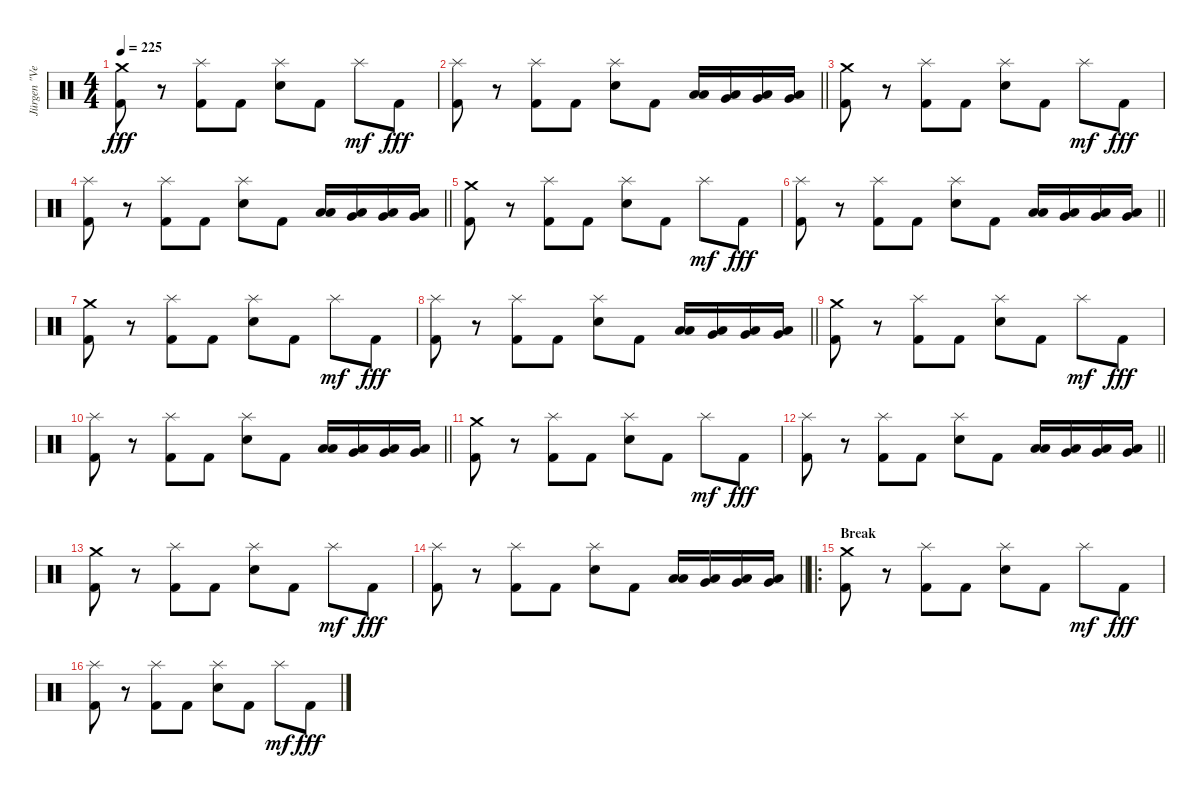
\track ("Jürgen \"Ventor\" Reil" "Jürgen \"Ve") {instrument percussion}
\staff {score}
\articulation defaults
\ts (4 4)
\tempo 225
\clef neutral
\ks c
("Crash medium (hit)" "Kick (hit) 2").8{dy fff} r.8 ("Splash (hit)" "Kick (hit) 2").8 "Kick (hit) 2".8 ("Splash (hit)" "Electric Snare (hit)").8 "Kick (hit) 2".8 "Splash (hit)".8{dy mf} "Kick (hit) 2".8{dy fff} |
\barLineRight lightlight
("Splash (hit)" "Kick (hit) 2").8 r.8 ("Splash (hit)" "Kick (hit) 2").8 "Kick (hit) 2".8 ("Splash (hit)" "Electric Snare (hit)").8 "Kick (hit) 2".8 ("Low Tom (hit)" "Low Floor Tom (hit)").16 ("Very Low Tom (hit)" "Low Tom (hit)").16 ("Low Floor Tom (hit)" "Very Low Tom (hit)").16 ("Very Low Tom (hit)" "Low Floor Tom (hit)").16 |
("Crash medium (hit)" "Kick (hit) 2").8 r.8 ("Splash (hit)" "Kick (hit) 2").8 "Kick (hit) 2".8 ("Splash (hit)" "Electric Snare (hit)").8 "Kick (hit) 2".8 "Splash (hit)".8{dy mf} "Kick (hit) 2".8{dy fff} |
\barLineRight lightlight
("Splash (hit)" "Kick (hit) 2").8 r.8 ("Splash (hit)" "Kick (hit) 2").8 "Kick (hit) 2".8 ("Splash (hit)" "Electric Snare (hit)").8 "Kick (hit) 2".8 ("Low Tom (hit)" "Low Floor Tom (hit)").16 ("Very Low Tom (hit)" "Low Tom (hit)").16 ("Low Floor Tom (hit)" "Very Low Tom (hit)").16 ("Very Low Tom (hit)" "Low Floor Tom (hit)").16 |
("Crash medium (hit)" "Kick (hit) 2").8 r.8 ("Splash (hit)" "Kick (hit) 2").8 "Kick (hit) 2".8 ("Splash (hit)" "Electric Snare (hit)").8 "Kick (hit) 2".8 "Splash (hit)".8{dy mf} "Kick (hit) 2".8{dy fff} |
\barLineRight lightlight
("Splash (hit)" "Kick (hit) 2").8 r.8 ("Splash (hit)" "Kick (hit) 2").8 "Kick (hit) 2".8 ("Splash (hit)" "Electric Snare (hit)").8 "Kick (hit) 2".8 ("Low Tom (hit)" "Low Floor Tom (hit)").16 ("Very Low Tom (hit)" "Low Tom (hit)").16 ("Low Floor Tom (hit)" "Very Low Tom (hit)").16 ("Very Low Tom (hit)" "Low Floor Tom (hit)").16 |
("Crash medium (hit)" "Kick (hit) 2").8 r.8 ("Splash (hit)" "Kick (hit) 2").8 "Kick (hit) 2".8 ("Splash (hit)" "Electric Snare (hit)").8 "Kick (hit) 2".8 "Splash (hit)".8{dy mf} "Kick (hit) 2".8{dy fff} |
\barLineRight lightlight
("Splash (hit)" "Kick (hit) 2").8 r.8 ("Splash (hit)" "Kick (hit) 2").8 "Kick (hit) 2".8 ("Splash (hit)" "Electric Snare (hit)").8 "Kick (hit) 2".8 ("Low Tom (hit)" "Low Floor Tom (hit)").16 ("Very Low Tom (hit)" "Low Tom (hit)").16 ("Low Floor Tom (hit)" "Very Low Tom (hit)").16 ("Very Low Tom (hit)" "Low Floor Tom (hit)").16 |
("Crash medium (hit)" "Kick (hit) 2").8 r.8 ("Splash (hit)" "Kick (hit) 2").8 "Kick (hit) 2".8 ("Splash (hit)" "Electric Snare (hit)").8 "Kick (hit) 2".8 "Splash (hit)".8{dy mf} "Kick (hit) 2".8{dy fff} |
\barLineRight lightlight
("Splash (hit)" "Kick (hit) 2").8 r.8 ("Splash (hit)" "Kick (hit) 2").8 "Kick (hit) 2".8 ("Splash (hit)" "Electric Snare (hit)").8 "Kick (hit) 2".8 ("Low Tom (hit)" "Low Floor Tom (hit)").16 ("Very Low Tom (hit)" "Low Tom (hit)").16 ("Low Floor Tom (hit)" "Very Low Tom (hit)").16 ("Very Low Tom (hit)" "Low Floor Tom (hit)").16 |
("Crash medium (hit)" "Kick (hit) 2").8 r.8 ("Splash (hit)" "Kick (hit) 2").8 "Kick (hit) 2".8 ("Splash (hit)" "Electric Snare (hit)").8 "Kick (hit) 2".8 "Splash (hit)".8{dy mf} "Kick (hit) 2".8{dy fff} |
\barLineRight lightlight
("Splash (hit)" "Kick (hit) 2").8 r.8 ("Splash (hit)" "Kick (hit) 2").8 "Kick (hit) 2".8 ("Splash (hit)" "Electric Snare (hit)").8 "Kick (hit) 2".8 ("Low Tom (hit)" "Low Floor Tom (hit)").16 ("Very Low Tom (hit)" "Low Tom (hit)").16 ("Low Floor Tom (hit)" "Very Low Tom (hit)").16 ("Very Low Tom (hit)" "Low Floor Tom (hit)").16 |
("Crash medium (hit)" "Kick (hit) 2").8 r.8 ("Splash (hit)" "Kick (hit) 2").8 "Kick (hit) 2".8 ("Splash (hit)" "Electric Snare (hit)").8 "Kick (hit) 2".8 "Splash (hit)".8{dy mf} "Kick (hit) 2".8{dy fff} |
\barLineRight lightlight
("Splash (hit)" "Kick (hit) 2").8 r.8 ("Splash (hit)" "Kick (hit) 2").8 "Kick (hit) 2".8 ("Splash (hit)" "Electric Snare (hit)").8 "Kick (hit) 2".8 ("Low Tom (hit)" "Low Floor Tom (hit)").16 ("Very Low Tom (hit)" "Low Tom (hit)").16 ("Low Floor Tom (hit)" "Very Low Tom (hit)").16 ("Very Low Tom (hit)" "Low Floor Tom (hit)").16 |
\ro
\section ("" "Break")
("Crash medium (hit)" "Kick (hit) 2").8 r.8 ("Splash (hit)" "Kick (hit) 2").8 "Kick (hit) 2".8 ("Splash (hit)" "Electric Snare (hit)").8 "Kick (hit) 2".8 "Splash (hit)".8{dy mf} "Kick (hit) 2".8{dy fff} |
("Splash (hit)" "Kick (hit) 2").8 r.8 ("Splash (hit)" "Kick (hit) 2").8 "Kick (hit) 2".8 ("Splash (hit)" "Electric Snare (hit)").8 "Kick (hit) 2".8 "Splash (hit)".8{dy mf} "Kick (hit) 2".8{dy fff}
